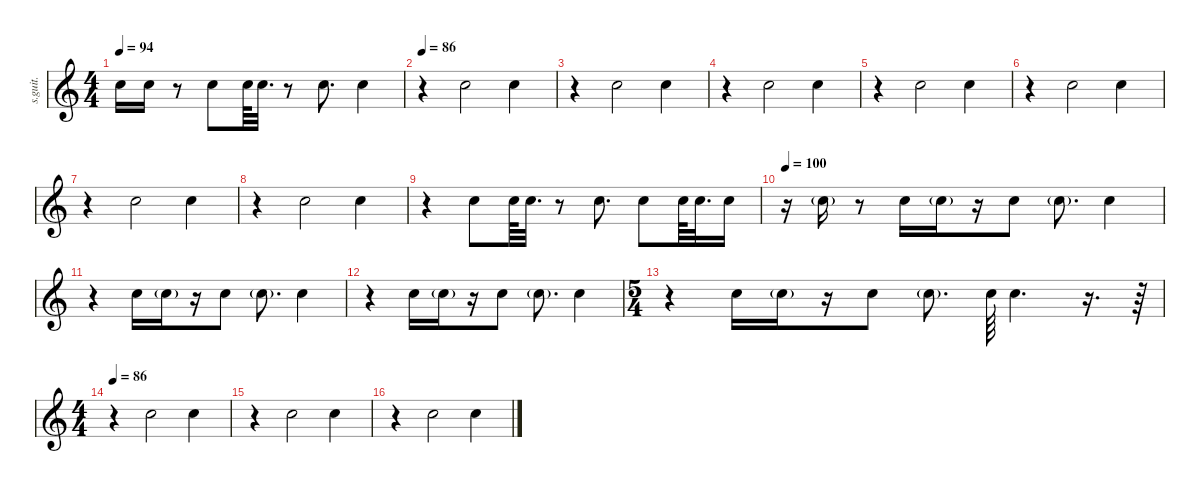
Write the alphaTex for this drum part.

\defaultSystemsLayout 4
\hideDynamics
\bracketExtendMode nobrackets
\track ("David Silveria (Snare Effect)" "s.guit.") {instrument percussion}
\staff {score}
\articulation defaults
\ts (4 4)
\tempo 94
\clef g2
\ks c "Hand Clap (hit)".16{dy f} "Hand Clap (hit)".16
r.8 "Hand Clap (hit)".8 "Hand Clap (hit)".64 "Hand Clap (hit)".32{d} r.8 "Hand Clap (hit)".8{d} "Hand Clap (hit)".4 |
\tempo 86
r.4 "Hand Clap (hit)".2 "Hand Clap (hit)".4 |
r.4 "Hand Clap (hit)".2 "Hand Clap (hit)".4 |
r.4 "Hand Clap (hit)".2 "Hand Clap (hit)".4 |
r.4 "Hand Clap (hit)".2 "Hand Clap (hit)".4 |
r.4 "Hand Clap (hit)".2 "Hand Clap (hit)".4 |
r.4 "Hand Clap (hit)".2 "Hand Clap (hit)".4 |
r.4 "Hand Clap (hit)".2 "Hand Clap (hit)".4 |
r.4 "Hand Clap (hit)".8 "Hand Clap (hit)".64 "Hand Clap (hit)".32{d} r.8 "Hand Clap (hit)".8{d} "Hand Clap (hit)".8 "Hand Clap (hit)".64 "Hand Clap (hit)".32{d} "Hand Clap (hit)".16 |
\tempo 100
r.16 "Hand Clap (hit)"{g}.16{dy p} r.8 "Hand Clap (hit)".16{dy f} "Hand Clap (hit)"{g}.16{dy mf} r.16 "Hand Clap (hit)".8{dy f} "Hand Clap (hit)"{g}.8{d dy mp} "Hand Clap (hit)".4{dy f} |
r.4 "Hand Clap (hit)".16 "Hand Clap (hit)"{g}.16{dy mf} r.16 "Hand Clap (hit)".8{dy f} "Hand Clap (hit)"{g}.8{d dy mp} "Hand Clap (hit)".4{dy f} |
r.4 "Hand Clap (hit)".16 "Hand Clap (hit)"{g}.16{dy mf} r.16 "Hand Clap (hit)".8{dy f} "Hand Clap (hit)"{g}.8{d dy mp} "Hand Clap (hit)".4{dy f} |
\ts (5 4)
\beaming (8 2 2 2 2)
r.4 "Hand Clap (hit)".16 "Hand Clap (hit)"{g}.16{dy mf} r.16 "Hand Clap (hit)".8{dy f} "Hand Clap (hit)"{g}.8{d dy mp} "Hand Clap (hit)".64{dy f} "Hand Clap (hit)".4{d} r.16{d} r.64 |
\ts (4 4)
\beaming (8 2 2 2 2)
\tempo 86
r.4 "Hand Clap (hit)".2 "Hand Clap (hit)".4 |
r.4 "Hand Clap (hit)".2 "Hand Clap (hit)".4 |
r.4 "Hand Clap (hit)".2 "Hand Clap (hit)".4
